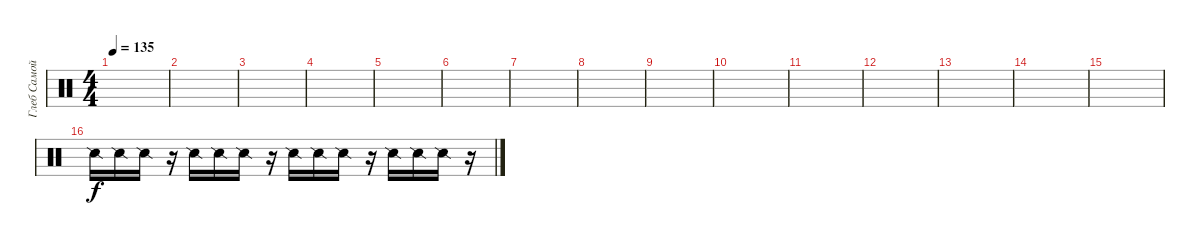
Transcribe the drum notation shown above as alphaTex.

\track ("Глеб Самойлов (fx)" "Глеб Самой") {instrument percussion}
\staff {score}
\articulation defaults
\ts (4 4)
\tempo 135
\clef neutral
\ks c
|
|
|
|
|
|
|
|
|
|
|
|
|
|
|
"Snare (side stick) 2".16 "Snare (side stick) 2".16 "Snare (side stick) 2".16 r.16 "Snare (side stick) 2".16 "Snare (side stick) 2".16 "Snare (side stick) 2".16 r.16 "Snare (side stick) 2".16 "Snare (side stick) 2".16 "Snare (side stick) 2".16 r.16 "Snare (side stick) 2".16 "Snare (side stick) 2".16 "Snare (side stick) 2".16 r.16
